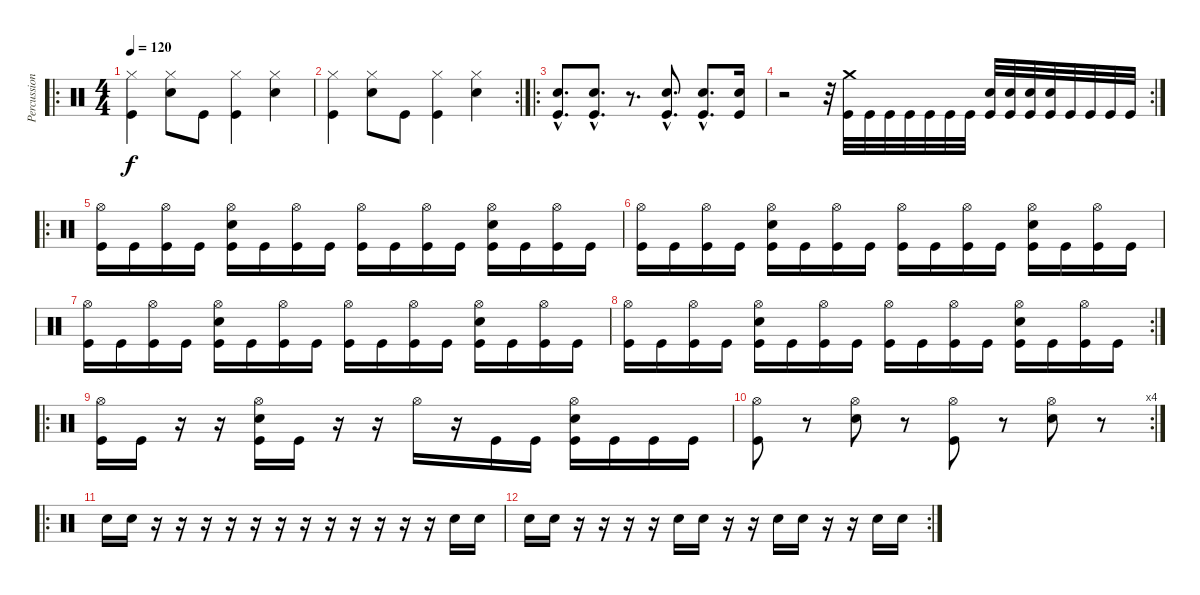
\track ("Percussion" "Percussion") {instrument percussion}
\staff {score}
\articulation defaults
\ro
\ts (4 4)
\tempo 120
\clef neutral
\ks c
("Hi-Hat (closed)" "Kick (hit)").4{dy f} ("Hi-Hat (closed)" "Snare (hit) 2").8 "Kick (hit)".8 ("Hi-Hat (closed)" "Kick (hit)").4 ("Hi-Hat (closed)" "Snare (hit) 2").4 |
\rc 2
("Hi-Hat (closed)" "Kick (hit)").4 ("Hi-Hat (closed)" "Snare (hit) 2").8 "Kick (hit)".8 ("Hi-Hat (closed)" "Kick (hit)").4 ("Hi-Hat (closed)" "Snare (hit) 2").4 |
\ro
("Snare (hit) 2"{hac} "Kick (hit)"{hac}).8{d} ("Snare (hit) 2"{hac} "Kick (hit)"{hac}).8{d} r.8{d} ("Snare (hit) 2"{hac} "Kick (hit)"{hac}).8{d} ("Snare (hit) 2"{hac} "Kick (hit)"{hac}).8{d} ("Snare (hit) 2" "Kick (hit)").16 |
\rc 2
r.2 r.32 ("Crash medium (hit)" "Kick (hit)").32 "Kick (hit)".32 "Kick (hit)".32 "Kick (hit)".32 "Kick (hit)".32 "Kick (hit)".32 "Kick (hit)".32 ("Snare (hit) 2" "Kick (hit)").32 ("Snare (hit) 2" "Kick (hit)").32 ("Snare (hit) 2" "Kick (hit)").32 ("Snare (hit) 2" "Kick (hit)").32 "Kick (hit)".32 "Kick (hit)".32 "Kick (hit)".32 "Kick (hit)".32 |
\ro
("Hi-Hat (open)" "Kick (hit)").16 "Kick (hit)".16 ("Hi-Hat (open)" "Kick (hit)").16 "Kick (hit)".16 ("Hi-Hat (open)" "Snare (hit) 2" "Kick (hit)").16 "Kick (hit)".16 ("Hi-Hat (open)" "Kick (hit)").16 "Kick (hit)".16 ("Hi-Hat (open)" "Kick (hit)").16 "Kick (hit)".16 ("Hi-Hat (open)" "Kick (hit)").16 "Kick (hit)".16 ("Hi-Hat (open)" "Snare (hit) 2" "Kick (hit)").16 "Kick (hit)".16 ("Hi-Hat (open)" "Kick (hit)").16 "Kick (hit)".16 |
("Hi-Hat (open)" "Kick (hit)").16 "Kick (hit)".16 ("Hi-Hat (open)" "Kick (hit)").16 "Kick (hit)".16 ("Hi-Hat (open)" "Snare (hit) 2" "Kick (hit)").16 "Kick (hit)".16 ("Hi-Hat (open)" "Kick (hit)").16 "Kick (hit)".16 ("Hi-Hat (open)" "Kick (hit)").16 "Kick (hit)".16 ("Hi-Hat (open)" "Kick (hit)").16 "Kick (hit)".16 ("Hi-Hat (open)" "Snare (hit) 2" "Kick (hit)").16 "Kick (hit)".16 ("Hi-Hat (open)" "Kick (hit)").16 "Kick (hit)".16 |
("Hi-Hat (open)" "Kick (hit)").16 "Kick (hit)".16 ("Hi-Hat (open)" "Kick (hit)").16 "Kick (hit)".16 ("Hi-Hat (open)" "Snare (hit) 2" "Kick (hit)").16 "Kick (hit)".16 ("Hi-Hat (open)" "Kick (hit)").16 "Kick (hit)".16 ("Hi-Hat (open)" "Kick (hit)").16 "Kick (hit)".16 ("Hi-Hat (open)" "Kick (hit)").16 "Kick (hit)".16 ("Hi-Hat (open)" "Snare (hit) 2" "Kick (hit)").16 "Kick (hit)".16 ("Hi-Hat (open)" "Kick (hit)").16 "Kick (hit)".16 |
\rc 2
("Hi-Hat (open)" "Kick (hit)").16 "Kick (hit)".16 ("Hi-Hat (open)" "Kick (hit)").16 "Kick (hit)".16 ("Hi-Hat (open)" "Snare (hit) 2" "Kick (hit)").16 "Kick (hit)".16 ("Hi-Hat (open)" "Kick (hit)").16 "Kick (hit)".16 ("Hi-Hat (open)" "Kick (hit)").16 "Kick (hit)".16 ("Hi-Hat (open)" "Kick (hit)").16 "Kick (hit)".16 ("Hi-Hat (open)" "Snare (hit) 2" "Kick (hit)").16 "Kick (hit)".16 ("Hi-Hat (open)" "Kick (hit)").16 "Kick (hit)".16 |
\ro
("Hi-Hat (open)" "Kick (hit)").16 "Kick (hit)".16 r.16 r.16 ("Hi-Hat (open)" "Snare (hit) 2" "Kick (hit)").16 "Kick (hit)".16 r.16 r.16 "Hi-Hat (open)".16 r.16 "Kick (hit)".16 "Kick (hit)".16 ("Hi-Hat (open)" "Snare (hit) 2" "Kick (hit)").16 "Kick (hit)".16 "Kick (hit)".16 "Kick (hit)".16 |
\rc 4
("Hi-Hat (open)" "Kick (hit)").8 r.8 ("Hi-Hat (open)" "Snare (hit) 2").8 r.8 ("Hi-Hat (open)" "Kick (hit)").8 r.8 ("Hi-Hat (open)" "Snare (hit) 2").8 r.8 |
\ro "Snare (hit) 2".16 "Snare (hit) 2".16
r.16 r.16 r.16 r.16 r.16 r.16 r.16 r.16 r.16 r.16 r.16 r.16 "Snare (hit) 2".16 "Snare (hit) 2".16 |
\rc 2 "Snare (hit) 2".16 "Snare (hit) 2".16
r.16 r.16 r.16 r.16 "Snare (hit) 2".16 "Snare (hit) 2".16 r.16 r.16 "Snare (hit) 2".16 "Snare (hit) 2".16 r.16 r.16 "Snare (hit) 2".16 "Snare (hit) 2".16
